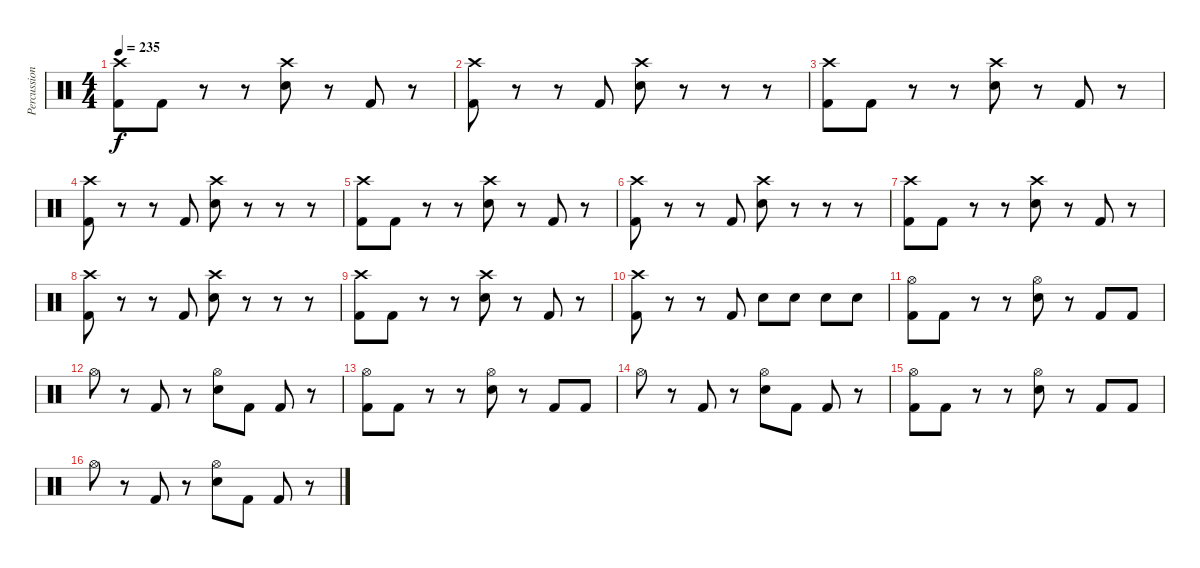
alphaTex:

\track ("Percussion" "Percussion") {instrument percussion}
\staff {score}
\articulation defaults
\ts (4 4)
\tempo 235
\clef neutral
\ks c
("Crash high (hit)" "Kick (hit) 2").8{dy f} "Kick (hit) 2".8 r.8 r.8 ("Crash high (hit)" "Snare (hit) 2").8 r.8 "Kick (hit) 2".8 r.8 |
("Crash high (hit)" "Kick (hit) 2").8 r.8 r.8 "Kick (hit) 2".8 ("Crash high (hit)" "Snare (hit) 2").8 r.8 r.8 r.8 |
("Crash high (hit)" "Kick (hit) 2").8 "Kick (hit) 2".8 r.8 r.8 ("Crash high (hit)" "Snare (hit) 2").8 r.8 "Kick (hit) 2".8 r.8 |
("Crash high (hit)" "Kick (hit) 2").8 r.8 r.8 "Kick (hit) 2".8 ("Crash high (hit)" "Snare (hit) 2").8 r.8 r.8 r.8 |
("Crash high (hit)" "Kick (hit) 2").8 "Kick (hit) 2".8 r.8 r.8 ("Crash high (hit)" "Snare (hit) 2").8 r.8 "Kick (hit) 2".8 r.8 |
("Crash high (hit)" "Kick (hit) 2").8 r.8 r.8 "Kick (hit) 2".8 ("Crash high (hit)" "Snare (hit) 2").8 r.8 r.8 r.8 |
("Crash high (hit)" "Kick (hit) 2").8 "Kick (hit) 2".8 r.8 r.8 ("Crash high (hit)" "Snare (hit) 2").8 r.8 "Kick (hit) 2".8 r.8 |
("Crash high (hit)" "Kick (hit) 2").8 r.8 r.8 "Kick (hit) 2".8 ("Crash high (hit)" "Snare (hit) 2").8 r.8 r.8 r.8 |
("Crash high (hit)" "Kick (hit) 2").8 "Kick (hit) 2".8 r.8 r.8 ("Crash high (hit)" "Snare (hit) 2").8 r.8 "Kick (hit) 2".8 r.8 |
("Crash high (hit)" "Kick (hit) 2").8 r.8 r.8 "Kick (hit) 2".8 "Snare (hit) 2".8 "Snare (hit) 2".8 "Snare (hit) 2".8 "Snare (hit) 2".8 |
("Hi-Hat (open)" "Kick (hit) 2").8 "Kick (hit) 2".8 r.8 r.8 ("Hi-Hat (open)" "Snare (hit) 2").8 r.8 "Kick (hit) 2".8 "Kick (hit) 2".8 |
"Hi-Hat (open)".8 r.8 "Kick (hit) 2".8 r.8 ("Hi-Hat (open)" "Snare (hit) 2").8 "Kick (hit) 2".8 "Kick (hit) 2".8 r.8 |
("Hi-Hat (open)" "Kick (hit) 2").8 "Kick (hit) 2".8 r.8 r.8 ("Hi-Hat (open)" "Snare (hit) 2").8 r.8 "Kick (hit) 2".8 "Kick (hit) 2".8 |
"Hi-Hat (open)".8 r.8 "Kick (hit) 2".8 r.8 ("Hi-Hat (open)" "Snare (hit) 2").8 "Kick (hit) 2".8 "Kick (hit) 2".8 r.8 |
("Hi-Hat (open)" "Kick (hit) 2").8 "Kick (hit) 2".8 r.8 r.8 ("Hi-Hat (open)" "Snare (hit) 2").8 r.8 "Kick (hit) 2".8 "Kick (hit) 2".8 |
"Hi-Hat (open)".8 r.8 "Kick (hit) 2".8 r.8 ("Hi-Hat (open)" "Snare (hit) 2").8 "Kick (hit) 2".8 "Kick (hit) 2".8 r.8
